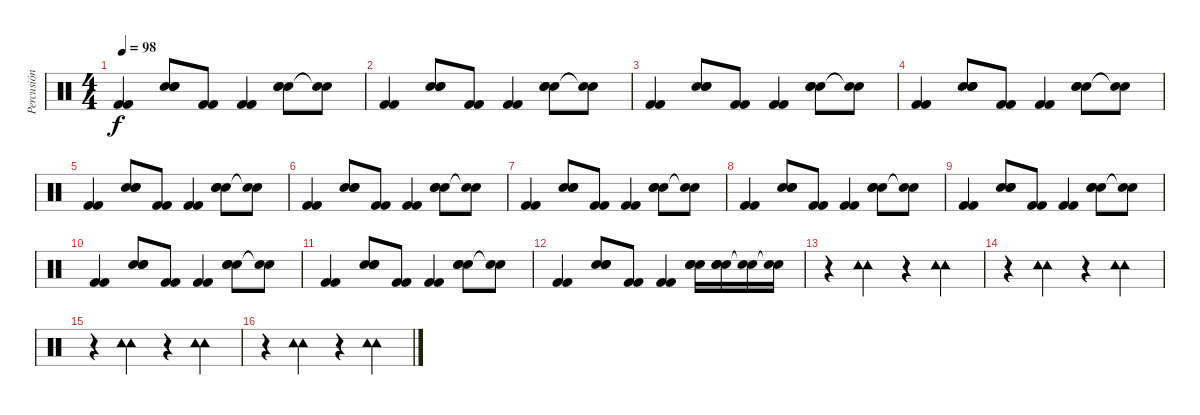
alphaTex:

\track ("Percusión" "Percusión") {instrument percussion}
\staff {score}
\articulation defaults
\ts (4 4)
\tempo 98
\clef neutral
\ks c
("Kick (hit) 2" "Kick (hit) 2").4{dy f} ("Electric Snare (hit)" "Electric Snare (hit)" "Electric Snare (hit)").8 ("Kick (hit) 2" "Kick (hit) 2").8 ("Kick (hit) 2" "Kick (hit) 2").4 ("Electric Snare (hit)" "Electric Snare (hit)" "Electric Snare (hit)").8 ("Snare (hit)"{t} "Snare (hit)"{t}).8 |
("Kick (hit) 2" "Kick (hit) 2").4 ("Electric Snare (hit)" "Electric Snare (hit)" "Electric Snare (hit)").8 ("Kick (hit) 2" "Kick (hit) 2").8 ("Kick (hit) 2" "Kick (hit) 2").4 ("Electric Snare (hit)" "Electric Snare (hit)" "Electric Snare (hit)").8 ("Snare (hit)"{t} "Snare (hit)"{t}).8 |
("Kick (hit) 2" "Kick (hit) 2").4 ("Electric Snare (hit)" "Electric Snare (hit)" "Electric Snare (hit)").8 ("Kick (hit) 2" "Kick (hit) 2").8 ("Kick (hit) 2" "Kick (hit) 2").4 ("Electric Snare (hit)" "Electric Snare (hit)" "Electric Snare (hit)").8 ("Snare (hit)"{t} "Snare (hit)"{t}).8 |
("Kick (hit) 2" "Kick (hit) 2").4 ("Electric Snare (hit)" "Electric Snare (hit)" "Electric Snare (hit)").8 ("Kick (hit) 2" "Kick (hit) 2").8 ("Kick (hit) 2" "Kick (hit) 2").4 ("Electric Snare (hit)" "Electric Snare (hit)" "Electric Snare (hit)").8 ("Electric Snare (hit)"{t} "Electric Snare (hit)"{t}).8 |
("Kick (hit) 2" "Kick (hit) 2").4 ("Electric Snare (hit)" "Electric Snare (hit)" "Electric Snare (hit)").8 ("Kick (hit) 2" "Kick (hit) 2").8 ("Kick (hit) 2" "Kick (hit) 2").4 ("Electric Snare (hit)" "Electric Snare (hit)" "Electric Snare (hit)").8 ("Snare (hit)"{t} "Snare (hit)"{t}).8 |
("Kick (hit) 2" "Kick (hit) 2").4 ("Electric Snare (hit)" "Electric Snare (hit)" "Electric Snare (hit)").8 ("Kick (hit) 2" "Kick (hit) 2").8 ("Kick (hit) 2" "Kick (hit) 2").4 ("Electric Snare (hit)" "Electric Snare (hit)" "Electric Snare (hit)").8 ("Snare (hit)"{t} "Snare (hit)"{t}).8 |
("Kick (hit) 2" "Kick (hit) 2").4 ("Electric Snare (hit)" "Electric Snare (hit)" "Electric Snare (hit)").8 ("Kick (hit) 2" "Kick (hit) 2").8 ("Kick (hit) 2" "Kick (hit) 2").4 ("Electric Snare (hit)" "Electric Snare (hit)" "Electric Snare (hit)").8 ("Snare (hit)"{t} "Snare (hit)"{t}).8 |
("Kick (hit) 2" "Kick (hit) 2").4 ("Electric Snare (hit)" "Electric Snare (hit)" "Electric Snare (hit)").8 ("Kick (hit) 2" "Kick (hit) 2").8 ("Kick (hit) 2" "Kick (hit) 2").4 ("Electric Snare (hit)" "Electric Snare (hit)" "Electric Snare (hit)").8 ("Snare (hit)"{t} "Snare (hit)"{t}).8 |
("Kick (hit) 2" "Kick (hit) 2").4 ("Electric Snare (hit)" "Electric Snare (hit)" "Electric Snare (hit)").8 ("Kick (hit) 2" "Kick (hit) 2").8 ("Kick (hit) 2" "Kick (hit) 2").4 ("Electric Snare (hit)" "Electric Snare (hit)" "Electric Snare (hit)").8 ("Snare (hit)"{t} "Snare (hit)"{t}).8 |
("Kick (hit) 2" "Kick (hit) 2").4 ("Electric Snare (hit)" "Electric Snare (hit)" "Electric Snare (hit)").8 ("Kick (hit) 2" "Kick (hit) 2").8 ("Kick (hit) 2" "Kick (hit) 2").4 ("Electric Snare (hit)" "Electric Snare (hit)" "Electric Snare (hit)").8 ("Snare (hit)"{t} "Snare (hit)"{t}).8 |
("Kick (hit) 2" "Kick (hit) 2").4 ("Electric Snare (hit)" "Electric Snare (hit)" "Electric Snare (hit)").8 ("Kick (hit) 2" "Kick (hit) 2").8 ("Kick (hit) 2" "Kick (hit) 2").4 ("Electric Snare (hit)" "Electric Snare (hit)" "Electric Snare (hit)").8 ("Snare (hit)"{t} "Snare (hit)"{t}).8 |
("Kick (hit) 2" "Kick (hit) 2").4 ("Electric Snare (hit)" "Electric Snare (hit)" "Electric Snare (hit)").8 ("Kick (hit) 2" "Kick (hit) 2").8 ("Kick (hit) 2" "Kick (hit) 2").4 ("Electric Snare (hit)" "Electric Snare (hit)" "Electric Snare (hit)").16 ("Electric Snare (hit)" "Electric Snare (hit)" "Electric Snare (hit)").16 ("Snare (hit)"{t} "Snare (hit)"{t}).16 ("Snare (hit)"{t} "Snare (hit)"{t}).16 |
r.4 ("Tambourine (hit)" "Tambourine (hit)").4 r.4 ("Tambourine (hit)" "Tambourine (hit)").4 |
r.4 ("Tambourine (hit)" "Tambourine (hit)").4 r.4 ("Tambourine (hit)" "Tambourine (hit)").4 |
r.4 ("Tambourine (hit)" "Tambourine (hit)").4 r.4 ("Tambourine (hit)" "Tambourine (hit)").4 |
r.4 ("Tambourine (hit)" "Tambourine (hit)").4 r.4 ("Tambourine (hit)" "Tambourine (hit)").4
